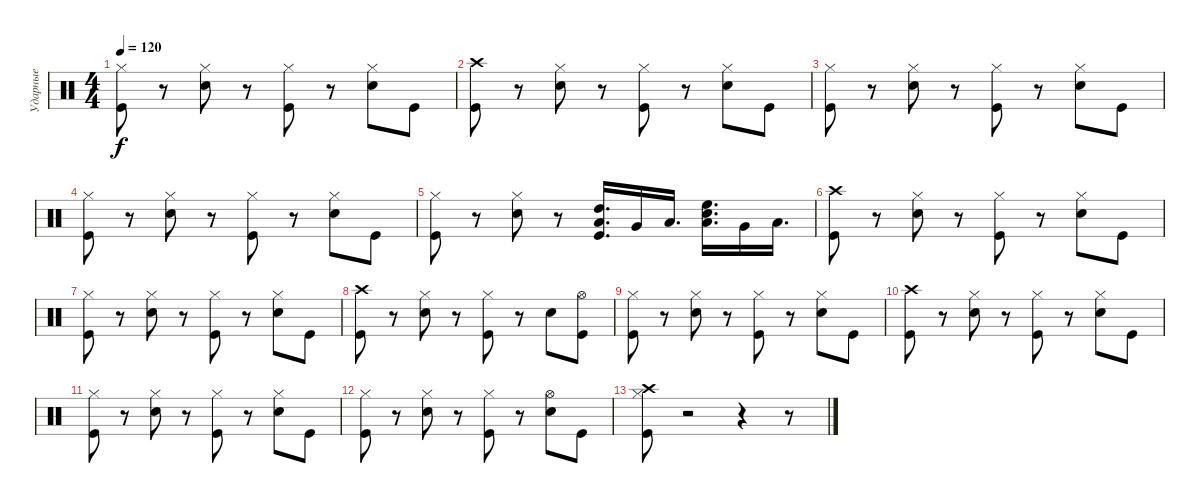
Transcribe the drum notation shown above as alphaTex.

\track ("Ударные" "Ударные") {instrument percussion}
\staff {score}
\articulation defaults
\ts (4 4)
\tempo 120
\clef neutral
\ks c
("Hi-Hat (closed)" "Kick (hit)").8{dy f} r.8 ("Hi-Hat (closed)" "Snare (hit) 2").8 r.8 ("Hi-Hat (closed)" "Kick (hit)").8 r.8 ("Hi-Hat (closed)" "Snare (hit) 2").8 "Kick (hit)".8 |
("Crash high (hit)" "Kick (hit)").8 r.8 ("Hi-Hat (closed)" "Snare (hit) 2").8 r.8 ("Hi-Hat (closed)" "Kick (hit)").8 r.8 ("Hi-Hat (closed)" "Snare (hit) 2").8 "Kick (hit)".8 |
("Hi-Hat (closed)" "Kick (hit)").8 r.8 ("Hi-Hat (closed)" "Snare (hit) 2").8 r.8 ("Hi-Hat (closed)" "Kick (hit)").8 r.8 ("Hi-Hat (closed)" "Snare (hit) 2").8 "Kick (hit)".8 |
("Hi-Hat (closed)" "Kick (hit)").8 r.8 ("Hi-Hat (closed)" "Snare (hit) 2").8 r.8 ("Hi-Hat (closed)" "Kick (hit)").8 r.8 ("Hi-Hat (closed)" "Snare (hit) 2").8 "Kick (hit)".8 |
("Hi-Hat (closed)" "Kick (hit)").8 r.8 ("Hi-Hat (closed)" "Snare (hit) 2").8 r.8 ("High Tom (hit)" "Low Tom (hit)" "Kick (hit)").16{d} "Very Low Tom (hit)".16 "Low Floor Tom (hit)".16{d} ("High Floor Tom (hit)" "Low Floor Tom (hit)" "Snare (hit) 2").16{d} "Very Low Tom (hit)".16 "Low Tom (hit)".16{d} |
("Crash high (hit)" "Kick (hit)").8 r.8 ("Hi-Hat (closed)" "Snare (hit) 2").8 r.8 ("Hi-Hat (closed)" "Kick (hit)").8 r.8 ("Hi-Hat (closed)" "Snare (hit) 2").8 "Kick (hit)".8 |
("Hi-Hat (closed)" "Kick (hit)").8 r.8 ("Hi-Hat (closed)" "Snare (hit) 2").8 r.8 ("Hi-Hat (closed)" "Kick (hit)").8 r.8 ("Hi-Hat (closed)" "Snare (hit) 2").8 "Kick (hit)".8 |
("Crash high (hit)" "Kick (hit)").8 r.8 ("Hi-Hat (closed)" "Snare (hit) 2").8 r.8 ("Hi-Hat (closed)" "Kick (hit)").8 r.8 "Snare (hit) 2".8 ("Hi-Hat (open)" "Kick (hit)").8 |
("Hi-Hat (closed)" "Kick (hit)").8 r.8 ("Hi-Hat (closed)" "Snare (hit) 2").8 r.8 ("Hi-Hat (closed)" "Kick (hit)").8 r.8 ("Hi-Hat (closed)" "Snare (hit) 2").8 "Kick (hit)".8 |
("Crash high (hit)" "Kick (hit)").8{volume 16} r.8 ("Hi-Hat (closed)" "Snare (hit) 2").8{volume 15} r.8 ("Hi-Hat (closed)" "Kick (hit)").8{volume 14} r.8 ("Hi-Hat (closed)" "Snare (hit) 2").8{volume 13} "Kick (hit)".8{volume 12} |
("Hi-Hat (closed)" "Kick (hit)").8{volume 12} r.8 ("Hi-Hat (closed)" "Snare (hit) 2").8{volume 11} r.8 ("Hi-Hat (closed)" "Kick (hit)").8{volume 10} r.8 ("Hi-Hat (closed)" "Snare (hit) 2").8{volume 9} "Kick (hit)".8{volume 8} |
("Hi-Hat (closed)" "Kick (hit)").8{volume 8} r.8 ("Hi-Hat (closed)" "Snare (hit) 2").8{volume 7} r.8 ("Hi-Hat (closed)" "Kick (hit)").8{volume 6} r.8 ("Hi-Hat (open)" "Snare (hit) 2").8{volume 5} "Kick (hit)".8{volume 4} |
("Crash high (hit)" "Hi-Hat (closed)" "Kick (hit)").8{volume 4} r.2 r.4 r.8
